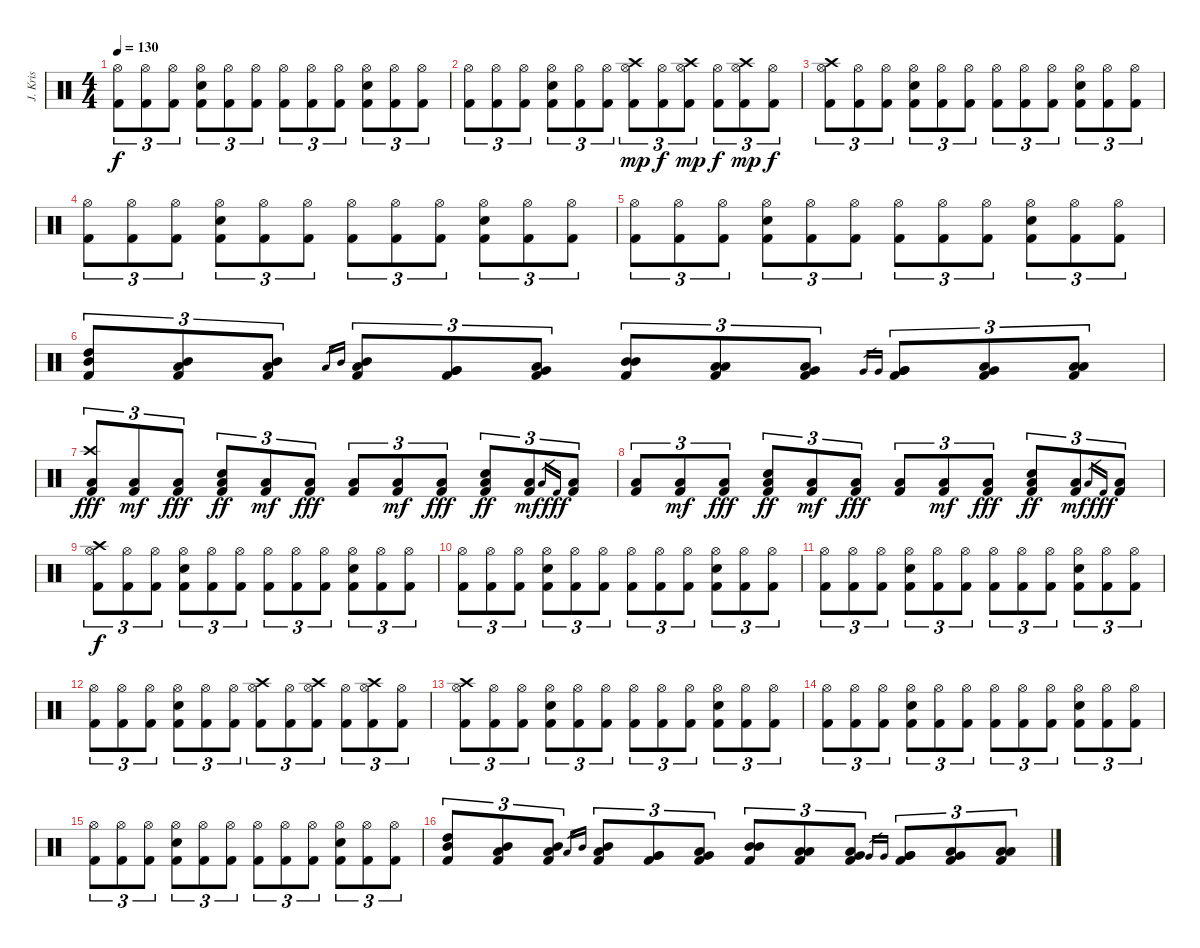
\track ("   J. Kristensson (drums)" "   J. Kris") {instrument percussion}
\staff {score}
\articulation defaults
\ts (4 4)
\tempo 130
\clef neutral
\ks c
("Hi-Hat (open)" "Kick (hit) 2").8{tu (3 2) dy f} ("Hi-Hat (open)" "Kick (hit) 2").8{tu (3 2)} ("Hi-Hat (open)" "Kick (hit) 2").8{tu (3 2)} ("Hi-Hat (open)" "Electric Snare (hit)" "Kick (hit) 2").8{tu (3 2)} ("Hi-Hat (open)" "Kick (hit) 2").8{tu (3 2)} ("Hi-Hat (open)" "Kick (hit) 2").8{tu (3 2)} ("Hi-Hat (open)" "Kick (hit) 2").8{tu (3 2)} ("Hi-Hat (open)" "Kick (hit) 2").8{tu (3 2)} ("Hi-Hat (open)" "Kick (hit) 2").8{tu (3 2)} ("Hi-Hat (open)" "Electric Snare (hit)" "Kick (hit) 2").8{tu (3 2)} ("Hi-Hat (open)" "Kick (hit) 2").8{tu (3 2)} ("Hi-Hat (open)" "Kick (hit) 2").8{tu (3 2)} |
("Hi-Hat (open)" "Kick (hit) 2").8{tu (3 2)} ("Hi-Hat (open)" "Kick (hit) 2").8{tu (3 2)} ("Hi-Hat (open)" "Kick (hit) 2").8{tu (3 2)} ("Hi-Hat (open)" "Electric Snare (hit)" "Kick (hit) 2").8{tu (3 2)} ("Hi-Hat (open)" "Kick (hit) 2").8{tu (3 2)} ("Hi-Hat (open)" "Kick (hit) 2").8{tu (3 2)} ("Hi-Hat (open)" "Crash high (hit)" "Kick (hit) 2").8{tu (3 2) dy mp} ("Hi-Hat (open)" "Kick (hit) 2").8{tu (3 2) dy f} ("Hi-Hat (open)" "Crash high (hit)" "Kick (hit) 2").8{tu (3 2) dy mp} ("Hi-Hat (open)" "Kick (hit) 2").8{tu (3 2) dy f} ("Hi-Hat (open)" "Crash high (hit)" "Kick (hit) 2").8{tu (3 2) dy mp} ("Hi-Hat (open)" "Kick (hit) 2").8{tu (3 2) dy f} |
("Hi-Hat (open)" "Crash high (hit)" "Kick (hit) 2").8{tu (3 2)} ("Hi-Hat (open)" "Kick (hit) 2").8{tu (3 2)} ("Hi-Hat (open)" "Kick (hit) 2").8{tu (3 2)} ("Hi-Hat (open)" "Electric Snare (hit)" "Kick (hit) 2").8{tu (3 2)} ("Hi-Hat (open)" "Kick (hit) 2").8{tu (3 2)} ("Hi-Hat (open)" "Kick (hit) 2").8{tu (3 2)} ("Hi-Hat (open)" "Kick (hit) 2").8{tu (3 2)} ("Hi-Hat (open)" "Kick (hit) 2").8{tu (3 2)} ("Hi-Hat (open)" "Kick (hit) 2").8{tu (3 2)} ("Hi-Hat (open)" "Electric Snare (hit)" "Kick (hit) 2").8{tu (3 2)} ("Hi-Hat (open)" "Kick (hit) 2").8{tu (3 2)} ("Hi-Hat (open)" "Kick (hit) 2").8{tu (3 2)} |
("Hi-Hat (open)" "Kick (hit) 2").8{tu (3 2)} ("Hi-Hat (open)" "Kick (hit) 2").8{tu (3 2)} ("Hi-Hat (open)" "Kick (hit) 2").8{tu (3 2)} ("Hi-Hat (open)" "Electric Snare (hit)" "Kick (hit) 2").8{tu (3 2)} ("Hi-Hat (open)" "Kick (hit) 2").8{tu (3 2)} ("Hi-Hat (open)" "Kick (hit) 2").8{tu (3 2)} ("Hi-Hat (open)" "Kick (hit) 2").8{tu (3 2)} ("Hi-Hat (open)" "Kick (hit) 2").8{tu (3 2)} ("Hi-Hat (open)" "Kick (hit) 2").8{tu (3 2)} ("Hi-Hat (open)" "Electric Snare (hit)" "Kick (hit) 2").8{tu (3 2)} ("Hi-Hat (open)" "Kick (hit) 2").8{tu (3 2)} ("Hi-Hat (open)" "Kick (hit) 2").8{tu (3 2)} |
("Hi-Hat (open)" "Kick (hit) 2").8{tu (3 2)} ("Hi-Hat (open)" "Kick (hit) 2").8{tu (3 2)} ("Hi-Hat (open)" "Kick (hit) 2").8{tu (3 2)} ("Hi-Hat (open)" "Electric Snare (hit)" "Kick (hit) 2").8{tu (3 2)} ("Hi-Hat (open)" "Kick (hit) 2").8{tu (3 2)} ("Hi-Hat (open)" "Kick (hit) 2").8{tu (3 2)} ("Hi-Hat (open)" "Kick (hit) 2").8{tu (3 2)} ("Hi-Hat (open)" "Kick (hit) 2").8{tu (3 2)} ("Hi-Hat (open)" "Kick (hit) 2").8{tu (3 2)} ("Hi-Hat (open)" "Electric Snare (hit)" "Kick (hit) 2").8{tu (3 2)} ("Hi-Hat (open)" "Kick (hit) 2").8{tu (3 2)} ("Hi-Hat (open)" "Kick (hit) 2").8{tu (3 2)} |
("High Tom (hit)" "Mid Tom (hit)" "Kick (hit) 2").8{tu (3 2)} ("Mid Tom (hit)" "Low Tom (hit)" "Kick (hit) 2").8{tu (3 2)} ("Low Tom (hit)" "Mid Tom (hit)" "Kick (hit) 2").8{tu (3 2)} "Low Tom (hit)".16{gr} "Mid Tom (hit)".16{gr} ("Low Tom (hit)" "Mid Tom (hit)" "Kick (hit) 2").8{tu (3 2)} ("Very Low Tom (hit)" "Very Low Tom (hit)" "Kick (hit) 2").8{tu (3 2)} ("Low Floor Tom (hit)" "Very Low Tom (hit)" "Kick (hit) 2").8{tu (3 2)} ("Mid Tom (hit)" "Mid Tom (hit)" "Kick (hit) 2").8{tu (3 2)} ("Low Tom (hit)" "Low Tom (hit)" "Kick (hit) 2").8{tu (3 2)} ("Very Low Tom (hit)" "Low Tom (hit)" "Kick (hit) 2").8{tu (3 2)} "Very Low Tom (hit)".16{gr} "Very Low Tom (hit)".16{gr} ("Very Low Tom (hit)" "Very Low Tom (hit)" "Kick (hit) 2").8{tu (3 2)} ("Low Floor Tom (hit)" "Very Low Tom (hit)" "Kick (hit) 2").8{tu (3 2)} ("Low Floor Tom (hit)" "Low Floor Tom (hit)" "Kick (hit) 2").8{tu (3 2)} |
("Low Floor Tom (hit)" "Crash high (hit)" "Kick (hit) 2").8{tu (3 2) dy fff} ("Low Floor Tom (hit)" "Kick (hit) 2").8{tu (3 2) dy mf} ("Low Floor Tom (hit)" "Kick (hit) 2").8{tu (3 2) dy fff} ("Low Floor Tom (hit)" "Electric Snare (hit)" "Kick (hit) 2").8{tu (3 2) dy ff} ("Low Floor Tom (hit)" "Kick (hit) 2").8{tu (3 2) dy mf} ("Low Floor Tom (hit)" "Kick (hit) 2").8{tu (3 2) dy fff} ("Low Floor Tom (hit)" "Kick (hit) 2").8{tu (3 2)} ("Low Floor Tom (hit)" "Kick (hit) 2").8{tu (3 2) dy mf} ("Low Floor Tom (hit)" "Kick (hit) 2").8{tu (3 2) dy fff} ("Low Floor Tom (hit)" "Electric Snare (hit)" "Kick (hit) 2").8{tu (3 2) dy ff} ("Low Floor Tom (hit)" "Kick (hit) 2").8{tu (3 2) dy mf} "Low Floor Tom (hit)".16{gr} "Kick (hit) 2".16{gr dy fff} ("Low Floor Tom (hit)" "Kick (hit) 2").8{tu (3 2)} |
("Low Floor Tom (hit)" "Kick (hit) 2").8{tu (3 2)} ("Low Floor Tom (hit)" "Kick (hit) 2").8{tu (3 2) dy mf} ("Low Floor Tom (hit)" "Kick (hit) 2").8{tu (3 2) dy fff} ("Low Floor Tom (hit)" "Electric Snare (hit)" "Kick (hit) 2").8{tu (3 2) dy ff} ("Low Floor Tom (hit)" "Kick (hit) 2").8{tu (3 2) dy mf} ("Low Floor Tom (hit)" "Kick (hit) 2").8{tu (3 2) dy fff} ("Low Floor Tom (hit)" "Kick (hit) 2").8{tu (3 2)} ("Low Floor Tom (hit)" "Kick (hit) 2").8{tu (3 2) dy mf} ("Low Floor Tom (hit)" "Kick (hit) 2").8{tu (3 2) dy fff} ("Low Floor Tom (hit)" "Electric Snare (hit)" "Kick (hit) 2").8{tu (3 2) dy ff} ("Low Floor Tom (hit)" "Kick (hit) 2").8{tu (3 2) dy mf} "Low Floor Tom (hit)".16{gr} "Kick (hit) 2".16{gr dy fff} ("Low Floor Tom (hit)" "Kick (hit) 2").8{tu (3 2)} |
("Hi-Hat (open)" "Crash high (hit)" "Kick (hit) 2").8{tu (3 2) dy f} ("Hi-Hat (open)" "Kick (hit) 2").8{tu (3 2)} ("Hi-Hat (open)" "Kick (hit) 2").8{tu (3 2)} ("Hi-Hat (open)" "Electric Snare (hit)" "Kick (hit) 2").8{tu (3 2)} ("Hi-Hat (open)" "Kick (hit) 2").8{tu (3 2)} ("Hi-Hat (open)" "Kick (hit) 2").8{tu (3 2)} ("Hi-Hat (open)" "Kick (hit) 2").8{tu (3 2)} ("Hi-Hat (open)" "Kick (hit) 2").8{tu (3 2)} ("Hi-Hat (open)" "Kick (hit) 2").8{tu (3 2)} ("Hi-Hat (open)" "Electric Snare (hit)" "Kick (hit) 2").8{tu (3 2)} ("Hi-Hat (open)" "Kick (hit) 2").8{tu (3 2)} ("Hi-Hat (open)" "Kick (hit) 2").8{tu (3 2)} |
("Hi-Hat (open)" "Kick (hit) 2").8{tu (3 2)} ("Hi-Hat (open)" "Kick (hit) 2").8{tu (3 2)} ("Hi-Hat (open)" "Kick (hit) 2").8{tu (3 2)} ("Hi-Hat (open)" "Electric Snare (hit)" "Kick (hit) 2").8{tu (3 2)} ("Hi-Hat (open)" "Kick (hit) 2").8{tu (3 2)} ("Hi-Hat (open)" "Kick (hit) 2").8{tu (3 2)} ("Hi-Hat (open)" "Kick (hit) 2").8{tu (3 2)} ("Hi-Hat (open)" "Kick (hit) 2").8{tu (3 2)} ("Hi-Hat (open)" "Kick (hit) 2").8{tu (3 2)} ("Hi-Hat (open)" "Electric Snare (hit)" "Kick (hit) 2").8{tu (3 2)} ("Hi-Hat (open)" "Kick (hit) 2").8{tu (3 2)} ("Hi-Hat (open)" "Kick (hit) 2").8{tu (3 2)} |
("Hi-Hat (open)" "Kick (hit) 2").8{tu (3 2)} ("Hi-Hat (open)" "Kick (hit) 2").8{tu (3 2)} ("Hi-Hat (open)" "Kick (hit) 2").8{tu (3 2)} ("Hi-Hat (open)" "Electric Snare (hit)" "Kick (hit) 2").8{tu (3 2)} ("Hi-Hat (open)" "Kick (hit) 2").8{tu (3 2)} ("Hi-Hat (open)" "Kick (hit) 2").8{tu (3 2)} ("Hi-Hat (open)" "Kick (hit) 2").8{tu (3 2)} ("Hi-Hat (open)" "Kick (hit) 2").8{tu (3 2)} ("Hi-Hat (open)" "Kick (hit) 2").8{tu (3 2)} ("Hi-Hat (open)" "Electric Snare (hit)" "Kick (hit) 2").8{tu (3 2)} ("Hi-Hat (open)" "Kick (hit) 2").8{tu (3 2)} ("Hi-Hat (open)" "Kick (hit) 2").8{tu (3 2)} |
("Hi-Hat (open)" "Kick (hit) 2").8{tu (3 2)} ("Hi-Hat (open)" "Kick (hit) 2").8{tu (3 2)} ("Hi-Hat (open)" "Kick (hit) 2").8{tu (3 2)} ("Hi-Hat (open)" "Electric Snare (hit)" "Kick (hit) 2").8{tu (3 2)} ("Hi-Hat (open)" "Kick (hit) 2").8{tu (3 2)} ("Hi-Hat (open)" "Kick (hit) 2").8{tu (3 2)} ("Hi-Hat (open)" "Crash high (hit)" "Kick (hit) 2").8{tu (3 2)} ("Hi-Hat (open)" "Kick (hit) 2").8{tu (3 2)} ("Hi-Hat (open)" "Crash high (hit)" "Kick (hit) 2").8{tu (3 2)} ("Hi-Hat (open)" "Kick (hit) 2").8{tu (3 2)} ("Hi-Hat (open)" "Crash high (hit)" "Kick (hit) 2").8{tu (3 2)} ("Hi-Hat (open)" "Kick (hit) 2").8{tu (3 2)} |
("Hi-Hat (open)" "Crash high (hit)" "Kick (hit) 2").8{tu (3 2)} ("Hi-Hat (open)" "Kick (hit) 2").8{tu (3 2)} ("Hi-Hat (open)" "Kick (hit) 2").8{tu (3 2)} ("Hi-Hat (open)" "Electric Snare (hit)" "Kick (hit) 2").8{tu (3 2)} ("Hi-Hat (open)" "Kick (hit) 2").8{tu (3 2)} ("Hi-Hat (open)" "Kick (hit) 2").8{tu (3 2)} ("Hi-Hat (open)" "Kick (hit) 2").8{tu (3 2)} ("Hi-Hat (open)" "Kick (hit) 2").8{tu (3 2)} ("Hi-Hat (open)" "Kick (hit) 2").8{tu (3 2)} ("Hi-Hat (open)" "Electric Snare (hit)" "Kick (hit) 2").8{tu (3 2)} ("Hi-Hat (open)" "Kick (hit) 2").8{tu (3 2)} ("Hi-Hat (open)" "Kick (hit) 2").8{tu (3 2)} |
("Hi-Hat (open)" "Kick (hit) 2").8{tu (3 2)} ("Hi-Hat (open)" "Kick (hit) 2").8{tu (3 2)} ("Hi-Hat (open)" "Kick (hit) 2").8{tu (3 2)} ("Hi-Hat (open)" "Electric Snare (hit)" "Kick (hit) 2").8{tu (3 2)} ("Hi-Hat (open)" "Kick (hit) 2").8{tu (3 2)} ("Hi-Hat (open)" "Kick (hit) 2").8{tu (3 2)} ("Hi-Hat (open)" "Kick (hit) 2").8{tu (3 2)} ("Hi-Hat (open)" "Kick (hit) 2").8{tu (3 2)} ("Hi-Hat (open)" "Kick (hit) 2").8{tu (3 2)} ("Hi-Hat (open)" "Electric Snare (hit)" "Kick (hit) 2").8{tu (3 2)} ("Hi-Hat (open)" "Kick (hit) 2").8{tu (3 2)} ("Hi-Hat (open)" "Kick (hit) 2").8{tu (3 2)} |
("Hi-Hat (open)" "Kick (hit) 2").8{tu (3 2)} ("Hi-Hat (open)" "Kick (hit) 2").8{tu (3 2)} ("Hi-Hat (open)" "Kick (hit) 2").8{tu (3 2)} ("Hi-Hat (open)" "Electric Snare (hit)" "Kick (hit) 2").8{tu (3 2)} ("Hi-Hat (open)" "Kick (hit) 2").8{tu (3 2)} ("Hi-Hat (open)" "Kick (hit) 2").8{tu (3 2)} ("Hi-Hat (open)" "Kick (hit) 2").8{tu (3 2)} ("Hi-Hat (open)" "Kick (hit) 2").8{tu (3 2)} ("Hi-Hat (open)" "Kick (hit) 2").8{tu (3 2)} ("Hi-Hat (open)" "Electric Snare (hit)" "Kick (hit) 2").8{tu (3 2)} ("Hi-Hat (open)" "Kick (hit) 2").8{tu (3 2)} ("Hi-Hat (open)" "Kick (hit) 2").8{tu (3 2)} |
("High Tom (hit)" "Mid Tom (hit)" "Kick (hit) 2").8{tu (3 2)} ("Mid Tom (hit)" "Low Tom (hit)" "Kick (hit) 2").8{tu (3 2)} ("Low Tom (hit)" "Mid Tom (hit)" "Kick (hit) 2").8{tu (3 2)} "Low Tom (hit)".16{gr} "Mid Tom (hit)".16{gr} ("Low Tom (hit)" "Mid Tom (hit)" "Kick (hit) 2").8{tu (3 2)} ("Very Low Tom (hit)" "Very Low Tom (hit)" "Kick (hit) 2").8{tu (3 2)} ("Low Floor Tom (hit)" "Very Low Tom (hit)" "Kick (hit) 2").8{tu (3 2)} ("Mid Tom (hit)" "Mid Tom (hit)" "Kick (hit) 2").8{tu (3 2)} ("Low Tom (hit)" "Low Tom (hit)" "Kick (hit) 2").8{tu (3 2)} ("Very Low Tom (hit)" "Low Tom (hit)" "Kick (hit) 2").8{tu (3 2)} "Very Low Tom (hit)".16{gr} "Very Low Tom (hit)".16{gr} ("Very Low Tom (hit)" "Very Low Tom (hit)" "Kick (hit) 2").8{tu (3 2)} ("Low Floor Tom (hit)" "Very Low Tom (hit)" "Kick (hit) 2").8{tu (3 2)} ("Low Floor Tom (hit)" "Low Floor Tom (hit)" "Kick (hit) 2").8{tu (3 2)}
